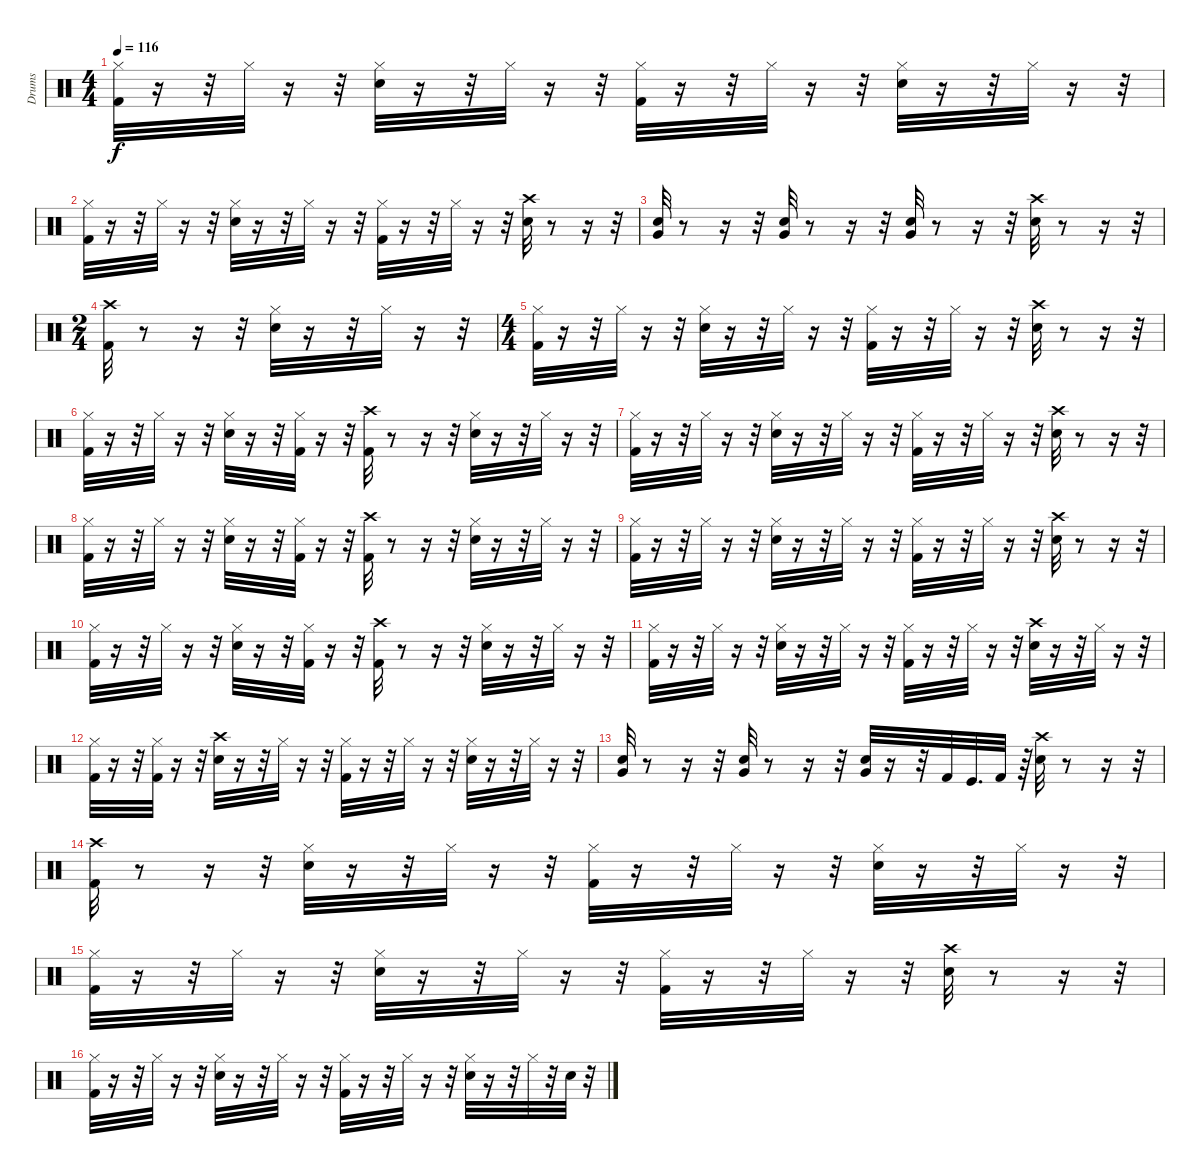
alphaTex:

\track ("Drums" "Drums") {instrument percussion}
\staff {score}
\articulation defaults
\ts (4 4)
\tempo 116
\clef neutral
\ks c
("Kick (hit) 2" "Hi-Hat (closed)").32{dy f} r.16 r.32 "Hi-Hat (closed)".32 r.16 r.32 ("Snare (hit) 2" "Hi-Hat (closed)").32 r.16 r.32 "Hi-Hat (closed)".32 r.16 r.32 ("Kick (hit) 2" "Hi-Hat (closed)").32 r.16 r.32 "Hi-Hat (closed)".32 r.16 r.32 ("Snare (hit) 2" "Hi-Hat (closed)").32 r.16 r.32 "Hi-Hat (closed)".32 r.16 r.32 |
("Kick (hit) 2" "Hi-Hat (closed)").32 r.16 r.32 "Hi-Hat (closed)".32 r.16 r.32 ("Snare (hit) 2" "Hi-Hat (closed)").32 r.16 r.32 "Hi-Hat (closed)".32 r.16 r.32 ("Hi-Hat (closed)" "Kick (hit) 2").32 r.16 r.32 "Hi-Hat (closed)".32 r.16 r.32 ("Crash high (hit)" "Snare (hit) 2").32 r.8 r.16 r.32 |
("Very Low Tom (hit)" "Snare (hit) 2").32 r.8 r.16 r.32 ("Very Low Tom (hit)" "Snare (hit) 2").32 r.8 r.16 r.32 ("Very Low Tom (hit)" "Snare (hit) 2").32 r.8 r.16 r.32 ("Crash high (hit)" "Snare (hit) 2").32 r.8 r.16 r.32 |
\ts (2 4)
("Kick (hit) 2" "Crash high (hit)").32 r.8 r.16 r.32 ("Hi-Hat (closed)" "Snare (hit) 2").32 r.16 r.32 "Hi-Hat (closed)".32 r.16 r.32 |
\ts (4 4)
("Kick (hit) 2" "Hi-Hat (closed)").32 r.16 r.32 "Hi-Hat (closed)".32 r.16 r.32 ("Snare (hit) 2" "Hi-Hat (closed)").32 r.16 r.32 "Hi-Hat (closed)".32 r.16 r.32 ("Hi-Hat (closed)" "Kick (hit) 2").32 r.16 r.32 "Hi-Hat (closed)".32 r.16 r.32 ("Crash high (hit)" "Snare (hit) 2").32 r.8 r.16 r.32 |
("Kick (hit) 2" "Hi-Hat (closed)").32 r.16 r.32 "Hi-Hat (closed)".32 r.16 r.32 ("Snare (hit) 2" "Hi-Hat (closed)").32 r.16 r.32 ("Kick (hit) 2" "Hi-Hat (closed)").32 r.16 r.32 ("Crash high (hit)" "Kick (hit) 2").32 r.8 r.16 r.32 ("Hi-Hat (closed)" "Snare (hit) 2").32 r.16 r.32 "Hi-Hat (closed)".32 r.16 r.32 |
("Kick (hit) 2" "Hi-Hat (closed)").32 r.16 r.32 "Hi-Hat (closed)".32 r.16 r.32 ("Snare (hit) 2" "Hi-Hat (closed)").32 r.16 r.32 "Hi-Hat (closed)".32 r.16 r.32 ("Hi-Hat (closed)" "Kick (hit) 2").32 r.16 r.32 "Hi-Hat (closed)".32 r.16 r.32 ("Crash high (hit)" "Snare (hit) 2").32 r.8 r.16 r.32 |
("Kick (hit) 2" "Hi-Hat (closed)").32 r.16 r.32 "Hi-Hat (closed)".32 r.16 r.32 ("Snare (hit) 2" "Hi-Hat (closed)").32 r.16 r.32 ("Kick (hit) 2" "Hi-Hat (closed)").32 r.16 r.32 ("Crash high (hit)" "Kick (hit) 2").32 r.8 r.16 r.32 ("Hi-Hat (closed)" "Snare (hit) 2").32 r.16 r.32 "Hi-Hat (closed)".32 r.16 r.32 |
("Kick (hit) 2" "Hi-Hat (closed)").32 r.16 r.32 "Hi-Hat (closed)".32 r.16 r.32 ("Snare (hit) 2" "Hi-Hat (closed)").32 r.16 r.32 "Hi-Hat (closed)".32 r.16 r.32 ("Hi-Hat (closed)" "Kick (hit) 2").32 r.16 r.32 "Hi-Hat (closed)".32 r.16 r.32 ("Crash high (hit)" "Snare (hit) 2").32 r.8 r.16 r.32 |
("Kick (hit) 2" "Hi-Hat (closed)").32 r.16 r.32 "Hi-Hat (closed)".32 r.16 r.32 ("Snare (hit) 2" "Hi-Hat (closed)").32 r.16 r.32 ("Kick (hit) 2" "Hi-Hat (closed)").32 r.16 r.32 ("Crash high (hit)" "Kick (hit) 2").32 r.8 r.16 r.32 ("Hi-Hat (closed)" "Snare (hit) 2").32 r.16 r.32 "Hi-Hat (closed)".32 r.16 r.32 |
("Kick (hit) 2" "Hi-Hat (closed)").32 r.16 r.32 "Hi-Hat (closed)".32 r.16 r.32 ("Snare (hit) 2" "Hi-Hat (closed)").32 r.16 r.32 "Hi-Hat (closed)".32 r.16 r.32 ("Hi-Hat (closed)" "Kick (hit) 2").32 r.16 r.32 "Hi-Hat (closed)".32 r.16 r.32 ("Crash high (hit)" "Snare (hit) 2").32 r.16 r.32 "Hi-Hat (closed)".32 r.16 r.32 |
("Hi-Hat (closed)" "Kick (hit) 2").32 r.16 r.32 ("Hi-Hat (closed)" "Kick (hit) 2").32 r.16 r.32 ("Crash high (hit)" "Snare (hit) 2").32 r.16 r.32 "Hi-Hat (closed)".32 r.16 r.32 ("Kick (hit) 2" "Hi-Hat (closed)").32 r.16 r.32 "Hi-Hat (closed)".32 r.16 r.32 ("Hi-Hat (closed)" "Snare (hit) 2").32 r.16 r.32 "Hi-Hat (closed)".32 r.16 r.32 |
("Very Low Tom (hit)" "Snare (hit) 2").32 r.8 r.16 r.32 ("Very Low Tom (hit)" "Snare (hit) 2").32 r.8 r.16 r.32 ("Very Low Tom (hit)" "Snare (hit) 2").32 r.16 r.32 "Kick (hit) 2".32 "Kick (hit)".32{d} "Kick (hit) 2".32 r.64 ("Crash high (hit)" "Snare (hit) 2").32 r.8 r.16 r.32 |
("Kick (hit) 2" "Crash high (hit)").32 r.8 r.16 r.32 ("Hi-Hat (closed)" "Snare (hit) 2").32 r.16 r.32 "Hi-Hat (closed)".32 r.16 r.32 ("Hi-Hat (closed)" "Kick (hit) 2").32 r.16 r.32 "Hi-Hat (closed)".32 r.16 r.32 ("Snare (hit) 2" "Hi-Hat (closed)").32 r.16 r.32 "Hi-Hat (closed)".32 r.16 r.32 |
("Hi-Hat (closed)" "Kick (hit) 2").32 r.16 r.32 "Hi-Hat (closed)".32 r.16 r.32 ("Snare (hit) 2" "Hi-Hat (closed)").32 r.16 r.32 "Hi-Hat (closed)".32 r.16 r.32 ("Hi-Hat (closed)" "Kick (hit) 2").32 r.16 r.32 "Hi-Hat (closed)".32 r.16 r.32 ("Crash high (hit)" "Snare (hit) 2").32 r.8 r.16 r.32 |
("Kick (hit) 2" "Hi-Hat (closed)").32 r.16 r.32 "Hi-Hat (closed)".32 r.16 r.32 ("Snare (hit) 2" "Hi-Hat (closed)").32 r.16 r.32 "Hi-Hat (closed)".32 r.16 r.32 ("Hi-Hat (closed)" "Kick (hit) 2").32 r.16 r.32 "Hi-Hat (closed)".32 r.16 r.32 ("Snare (hit) 2" "Hi-Hat (closed)").32 r.16 r.32 "Hi-Hat (closed)".32 r.32 "Snare (hit) 2".32 r.32
